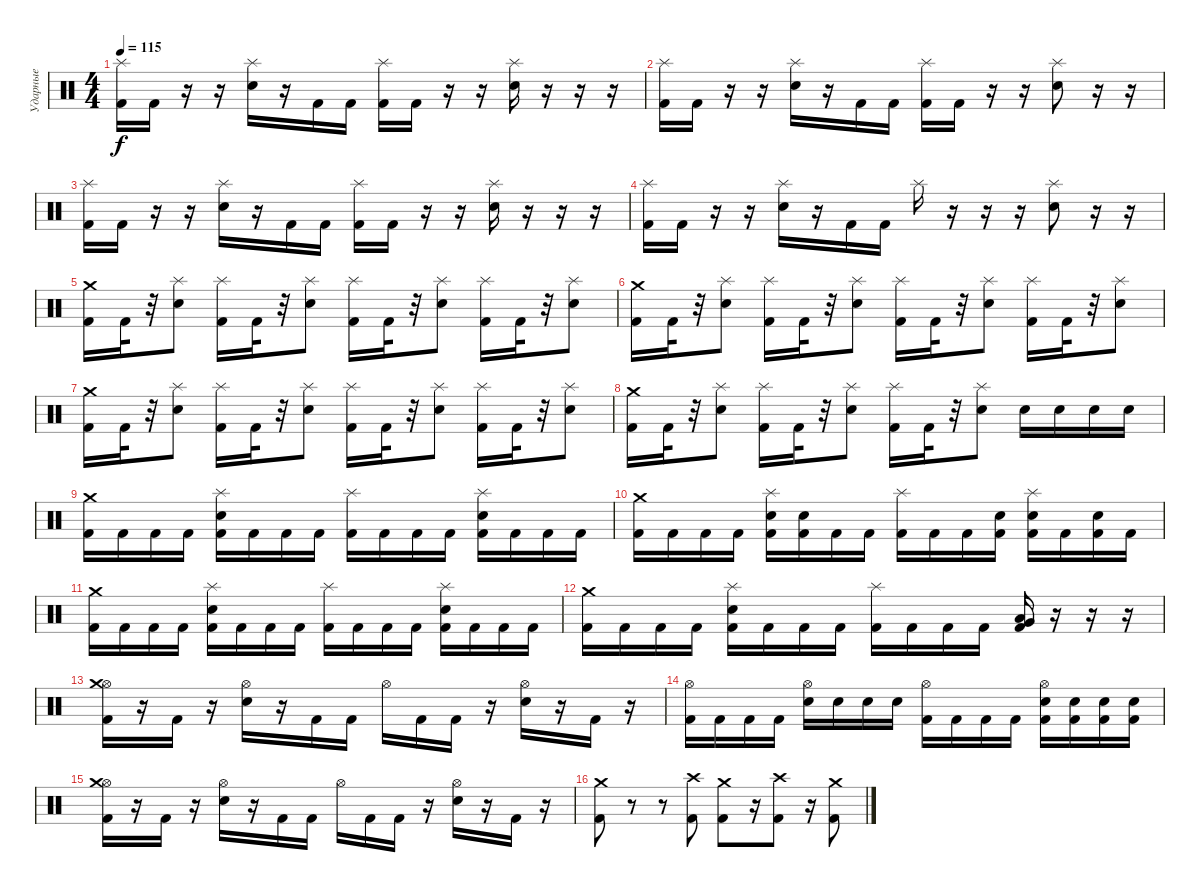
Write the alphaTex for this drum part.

\track ("Ударные" "Ударные") {instrument percussion}
\staff {score}
\articulation defaults
\ts (4 4)
\tempo 115
\clef neutral
\ks c
("Splash (hit)" "Kick (hit) 2").16{dy f} "Kick (hit) 2".16 r.16 r.16 ("Splash (hit)" "Electric Snare (hit)").16 r.16 "Kick (hit) 2".16 "Kick (hit) 2".16 ("Splash (hit)" "Kick (hit) 2").16 "Kick (hit) 2".16 r.16 r.16 ("Splash (hit)" "Electric Snare (hit)").16 r.16 r.16 r.16 |
("Splash (hit)" "Kick (hit) 2").16 "Kick (hit) 2".16 r.16 r.16 ("Splash (hit)" "Electric Snare (hit)").16 r.16 "Kick (hit) 2".16 "Kick (hit) 2".16 ("Splash (hit)" "Kick (hit) 2").16 "Kick (hit) 2".16 r.16 r.16 ("Splash (hit)" "Electric Snare (hit)").8 r.16 r.16 |
("Splash (hit)" "Kick (hit) 2").16 "Kick (hit) 2".16 r.16 r.16 ("Splash (hit)" "Electric Snare (hit)").16 r.16 "Kick (hit) 2".16 "Kick (hit) 2".16 ("Splash (hit)" "Kick (hit) 2").16 "Kick (hit) 2".16 r.16 r.16 ("Splash (hit)" "Electric Snare (hit)").16 r.16 r.16 r.16 |
("Splash (hit)" "Kick (hit) 2").16 "Kick (hit) 2".16 r.16 r.16 ("Splash (hit)" "Electric Snare (hit)").16 r.16 "Kick (hit) 2".16 "Kick (hit) 2".16 "Splash (hit)".16 r.16 r.16 r.16 ("Splash (hit)" "Electric Snare (hit)").8 r.16 r.16 |
("Crash medium (hit)" "Kick (hit) 2").16 "Kick (hit) 2".32 r.32 ("Splash (hit)" "Electric Snare (hit)").8 ("Splash (hit)" "Kick (hit) 2").16 "Kick (hit) 2".32 r.32 ("Splash (hit)" "Electric Snare (hit)").8 ("Splash (hit)" "Kick (hit) 2").16 "Kick (hit) 2".32 r.32 ("Splash (hit)" "Electric Snare (hit)").8 ("Splash (hit)" "Kick (hit) 2").16 "Kick (hit) 2".32 r.32 ("Splash (hit)" "Electric Snare (hit)").8 |
("Crash medium (hit)" "Kick (hit) 2").16 "Kick (hit) 2".32 r.32 ("Splash (hit)" "Electric Snare (hit)").8 ("Splash (hit)" "Kick (hit) 2").16 "Kick (hit) 2".32 r.32 ("Splash (hit)" "Electric Snare (hit)").8 ("Splash (hit)" "Kick (hit) 2").16 "Kick (hit) 2".32 r.32 ("Splash (hit)" "Electric Snare (hit)").8 ("Splash (hit)" "Kick (hit) 2").16 "Kick (hit) 2".32 r.32 ("Splash (hit)" "Electric Snare (hit)").8 |
("Crash medium (hit)" "Kick (hit) 2").16 "Kick (hit) 2".32 r.32 ("Splash (hit)" "Electric Snare (hit)").8 ("Splash (hit)" "Kick (hit) 2").16 "Kick (hit) 2".32 r.32 ("Splash (hit)" "Electric Snare (hit)").8 ("Splash (hit)" "Kick (hit) 2").16 "Kick (hit) 2".32 r.32 ("Splash (hit)" "Electric Snare (hit)").8 ("Splash (hit)" "Kick (hit) 2").16 "Kick (hit) 2".32 r.32 ("Splash (hit)" "Electric Snare (hit)").8 |
("Crash medium (hit)" "Kick (hit) 2").16 "Kick (hit) 2".32 r.32 ("Splash (hit)" "Electric Snare (hit)").8 ("Splash (hit)" "Kick (hit) 2").16 "Kick (hit) 2".32 r.32 ("Splash (hit)" "Electric Snare (hit)").8 ("Splash (hit)" "Kick (hit) 2").16 "Kick (hit) 2".32 r.32 ("Splash (hit)" "Electric Snare (hit)").8 "Electric Snare (hit)".16 "Electric Snare (hit)".16 "Electric Snare (hit)".16 "Electric Snare (hit)".16 |
("Crash medium (hit)" "Kick (hit) 2").16 "Kick (hit) 2".16 "Kick (hit) 2".16 "Kick (hit) 2".16 ("Splash (hit)" "Electric Snare (hit)" "Kick (hit) 2").16 "Kick (hit) 2".16 "Kick (hit) 2".16 "Kick (hit) 2".16 ("Splash (hit)" "Kick (hit) 2").16 "Kick (hit) 2".16 "Kick (hit) 2".16 "Kick (hit) 2".16 ("Electric Snare (hit)" "Splash (hit)" "Kick (hit) 2").16 "Kick (hit) 2".16 "Kick (hit) 2".16 "Kick (hit) 2".16 |
("Crash medium (hit)" "Kick (hit) 2").16 "Kick (hit) 2".16 "Kick (hit) 2".16 "Kick (hit) 2".16 ("Splash (hit)" "Electric Snare (hit)" "Kick (hit) 2").16 ("Electric Snare (hit)" "Kick (hit) 2").16 "Kick (hit) 2".16 "Kick (hit) 2".16 ("Splash (hit)" "Kick (hit) 2").16 "Kick (hit) 2".16 "Kick (hit) 2".16 ("Electric Snare (hit)" "Kick (hit) 2").16 ("Electric Snare (hit)" "Splash (hit)" "Kick (hit) 2").16 "Kick (hit) 2".16 ("Electric Snare (hit)" "Kick (hit) 2").16 "Kick (hit) 2".16 |
("Crash medium (hit)" "Kick (hit) 2").16 "Kick (hit) 2".16 "Kick (hit) 2".16 "Kick (hit) 2".16 ("Splash (hit)" "Electric Snare (hit)" "Kick (hit) 2").16 "Kick (hit) 2".16 "Kick (hit) 2".16 "Kick (hit) 2".16 ("Splash (hit)" "Kick (hit) 2").16 "Kick (hit) 2".16 "Kick (hit) 2".16 "Kick (hit) 2".16 ("Electric Snare (hit)" "Splash (hit)" "Kick (hit) 2").16 "Kick (hit) 2".16 "Kick (hit) 2".16 "Kick (hit) 2".16 |
("Crash medium (hit)" "Kick (hit) 2").16 "Kick (hit) 2".16 "Kick (hit) 2".16 "Kick (hit) 2".16 ("Splash (hit)" "Electric Snare (hit)" "Kick (hit) 2").16 "Kick (hit) 2".16 "Kick (hit) 2".16 "Kick (hit) 2".16 ("Splash (hit)" "Kick (hit) 2").16 "Kick (hit) 2".16 "Kick (hit) 2".16 "Kick (hit) 2".16 ("Kick (hit) 2" "Very Low Tom (hit)" "Low Floor Tom (hit)").16 r.16 r.16 r.16 |
("Hi-Hat (open)" "Crash medium (hit)" "Kick (hit) 2").16 r.16 "Kick (hit) 2".16 r.16 ("Hi-Hat (open)" "Electric Snare (hit)").16 r.16 "Kick (hit) 2".16 "Kick (hit) 2".16 "Hi-Hat (open)".16 "Kick (hit) 2".16 "Kick (hit) 2".16 r.16 ("Hi-Hat (open)" "Electric Snare (hit)").16 r.16 "Kick (hit) 2".16 r.16 |
("Hi-Hat (open)" "Kick (hit) 2").16 "Kick (hit) 2".16 "Kick (hit) 2".16 "Kick (hit) 2".16 ("Hi-Hat (open)" "Electric Snare (hit)").16 "Electric Snare (hit)".16 "Electric Snare (hit)".16 "Electric Snare (hit)".16 ("Hi-Hat (open)" "Kick (hit) 2").16 "Kick (hit) 2".16 "Kick (hit) 2".16 "Kick (hit) 2".16 ("Hi-Hat (open)" "Kick (hit) 2" "Electric Snare (hit)").16 ("Kick (hit) 2" "Electric Snare (hit)").16 ("Kick (hit) 2" "Electric Snare (hit)").16 ("Kick (hit) 2" "Electric Snare (hit)").16 |
("Hi-Hat (open)" "Crash medium (hit)" "Kick (hit) 2").16 r.16 "Kick (hit) 2".16 r.16 ("Hi-Hat (open)" "Electric Snare (hit)").16 r.16 "Kick (hit) 2".16 "Kick (hit) 2".16 "Hi-Hat (open)".16 "Kick (hit) 2".16 "Kick (hit) 2".16 r.16 ("Hi-Hat (open)" "Electric Snare (hit)").16 r.16 "Kick (hit) 2".16 r.16 |
("Crash medium (hit)" "Kick (hit) 2").8 r.8 r.8 ("Crash high (hit)" "Kick (hit) 2").8 ("Crash medium (hit)" "Kick (hit) 2").8 r.16 ("Crash high (hit)" "Kick (hit) 2").8 r.16 ("Crash medium (hit)" "Kick (hit) 2").8
